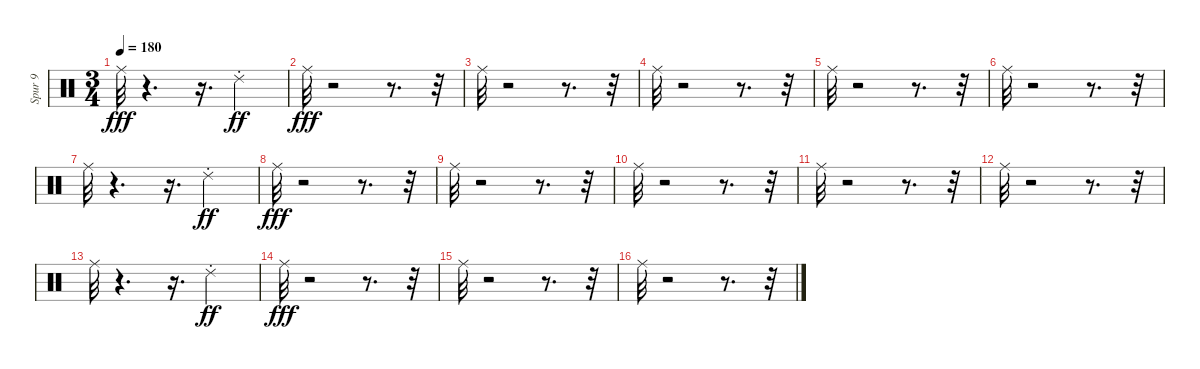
\track ("Spur 9" "Spur 9") {instrument percussion}
\staff {score}
\articulation defaults
\ts (3 4)
\tempo 180
\clef neutral
\ks c "Ride (middle)".32{dy fff}
r.4{d} r.16{d} "Ride (choke) 2".4{dy ff} |
"Ride (middle)".32{dy fff} r.2 r.8{d} r.32 |
"Ride (middle)".32 r.2 r.8{d} r.32 |
"Ride (middle)".32 r.2 r.8{d} r.32 |
"Ride (middle)".32 r.2 r.8{d} r.32 |
"Ride (middle)".32 r.2 r.8{d} r.32 |
"Ride (middle)".32 r.4{d} r.16{d} "Ride (choke) 2".4{dy ff} |
"Ride (middle)".32{dy fff} r.2 r.8{d} r.32 |
"Ride (middle)".32 r.2 r.8{d} r.32 |
"Ride (middle)".32 r.2 r.8{d} r.32 |
"Ride (middle)".32 r.2 r.8{d} r.32 |
"Ride (middle)".32 r.2 r.8{d} r.32 |
"Ride (middle)".32 r.4{d} r.16{d} "Ride (choke) 2".4{dy ff} |
"Ride (middle)".32{dy fff} r.2 r.8{d} r.32 |
"Ride (middle)".32 r.2 r.8{d} r.32 |
"Ride (middle)".32 r.2 r.8{d} r.32
